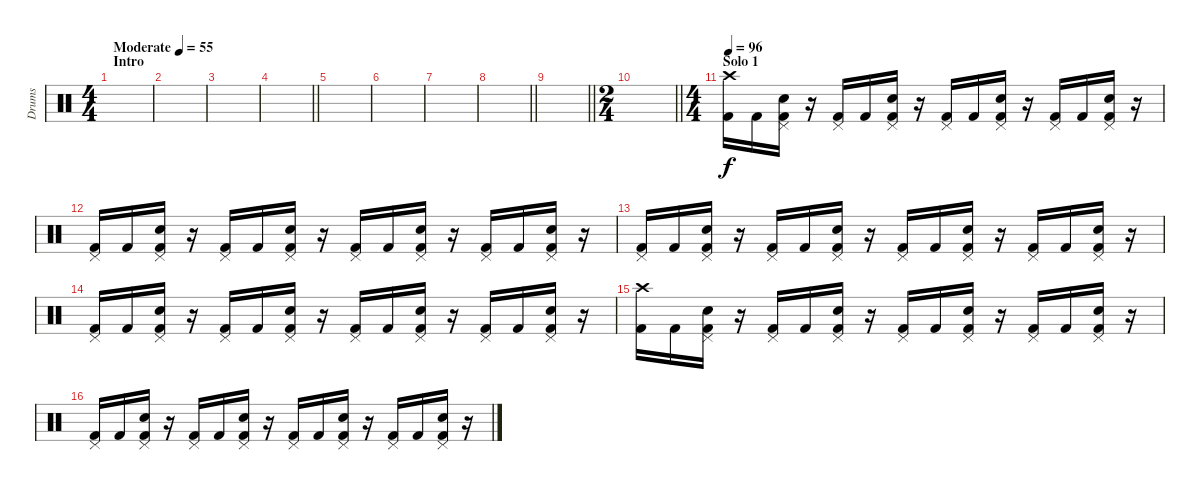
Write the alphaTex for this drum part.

\track ("Drums" "Drums") {instrument percussion}
\staff {score}
\articulation defaults
\ts (4 4)
\section ("" "Intro")
\tempo (55 "Moderate")
\clef neutral
\ks c
|
|
|
\barLineRight lightlight
|
|
|
|
\barLineRight lightlight
|
\barLineRight lightlight
|
\ts (2 4)
\barLineRight lightlight
|
\ts (4 4)
\section ("" "Solo 1")
\tempo 96
("Crash high (hit)" "Kick (hit) 2").16 "Kick (hit) 2".16 ("Pedal Hi-Hat (hit)" "Snare (hit) 2" "Kick (hit) 2").16 r.16 ("Pedal Hi-Hat (hit)" "Kick (hit) 2").16 "Kick (hit) 2".16 ("Pedal Hi-Hat (hit)" "Snare (hit) 2" "Kick (hit) 2").16 r.16 ("Pedal Hi-Hat (hit)" "Kick (hit) 2").16 "Kick (hit) 2".16 ("Pedal Hi-Hat (hit)" "Snare (hit) 2" "Kick (hit) 2").16 r.16 ("Pedal Hi-Hat (hit)" "Kick (hit) 2").16 "Kick (hit) 2".16 ("Pedal Hi-Hat (hit)" "Snare (hit) 2" "Kick (hit) 2").16 r.16 |
("Pedal Hi-Hat (hit)" "Kick (hit) 2").16 "Kick (hit) 2".16 ("Pedal Hi-Hat (hit)" "Snare (hit) 2" "Kick (hit) 2").16 r.16 ("Pedal Hi-Hat (hit)" "Kick (hit) 2").16 "Kick (hit) 2".16 ("Pedal Hi-Hat (hit)" "Snare (hit) 2" "Kick (hit) 2").16 r.16 ("Pedal Hi-Hat (hit)" "Kick (hit) 2").16 "Kick (hit) 2".16 ("Pedal Hi-Hat (hit)" "Snare (hit) 2" "Kick (hit) 2").16 r.16 ("Pedal Hi-Hat (hit)" "Kick (hit) 2").16 "Kick (hit) 2".16 ("Pedal Hi-Hat (hit)" "Snare (hit) 2" "Kick (hit) 2").16 r.16 |
("Pedal Hi-Hat (hit)" "Kick (hit) 2").16 "Kick (hit) 2".16 ("Pedal Hi-Hat (hit)" "Snare (hit) 2" "Kick (hit) 2").16 r.16 ("Pedal Hi-Hat (hit)" "Kick (hit) 2").16 "Kick (hit) 2".16 ("Pedal Hi-Hat (hit)" "Snare (hit) 2" "Kick (hit) 2").16 r.16 ("Pedal Hi-Hat (hit)" "Kick (hit) 2").16 "Kick (hit) 2".16 ("Pedal Hi-Hat (hit)" "Snare (hit) 2" "Kick (hit) 2").16 r.16 ("Pedal Hi-Hat (hit)" "Kick (hit) 2").16 "Kick (hit) 2".16 ("Pedal Hi-Hat (hit)" "Snare (hit) 2" "Kick (hit) 2").16 r.16 |
("Pedal Hi-Hat (hit)" "Kick (hit) 2").16 "Kick (hit) 2".16 ("Pedal Hi-Hat (hit)" "Snare (hit) 2" "Kick (hit) 2").16 r.16 ("Pedal Hi-Hat (hit)" "Kick (hit) 2").16 "Kick (hit) 2".16 ("Pedal Hi-Hat (hit)" "Snare (hit) 2" "Kick (hit) 2").16 r.16 ("Pedal Hi-Hat (hit)" "Kick (hit) 2").16 "Kick (hit) 2".16 ("Pedal Hi-Hat (hit)" "Snare (hit) 2" "Kick (hit) 2").16 r.16 ("Pedal Hi-Hat (hit)" "Kick (hit) 2").16 "Kick (hit) 2".16 ("Pedal Hi-Hat (hit)" "Snare (hit) 2" "Kick (hit) 2").16 r.16 |
("Crash high (hit)" "Kick (hit) 2").16 "Kick (hit) 2".16 ("Pedal Hi-Hat (hit)" "Snare (hit) 2" "Kick (hit) 2").16 r.16 ("Pedal Hi-Hat (hit)" "Kick (hit) 2").16 "Kick (hit) 2".16 ("Pedal Hi-Hat (hit)" "Snare (hit) 2" "Kick (hit) 2").16 r.16 ("Pedal Hi-Hat (hit)" "Kick (hit) 2").16 "Kick (hit) 2".16 ("Pedal Hi-Hat (hit)" "Snare (hit) 2" "Kick (hit) 2").16 r.16 ("Pedal Hi-Hat (hit)" "Kick (hit) 2").16 "Kick (hit) 2".16 ("Pedal Hi-Hat (hit)" "Snare (hit) 2" "Kick (hit) 2").16 r.16 |
("Pedal Hi-Hat (hit)" "Kick (hit) 2").16 "Kick (hit) 2".16 ("Pedal Hi-Hat (hit)" "Snare (hit) 2" "Kick (hit) 2").16 r.16 ("Pedal Hi-Hat (hit)" "Kick (hit) 2").16 "Kick (hit) 2".16 ("Pedal Hi-Hat (hit)" "Snare (hit) 2" "Kick (hit) 2").16 r.16 ("Pedal Hi-Hat (hit)" "Kick (hit) 2").16 "Kick (hit) 2".16 ("Pedal Hi-Hat (hit)" "Snare (hit) 2" "Kick (hit) 2").16 r.16 ("Pedal Hi-Hat (hit)" "Kick (hit) 2").16 "Kick (hit) 2".16 ("Pedal Hi-Hat (hit)" "Snare (hit) 2" "Kick (hit) 2").16 r.16
